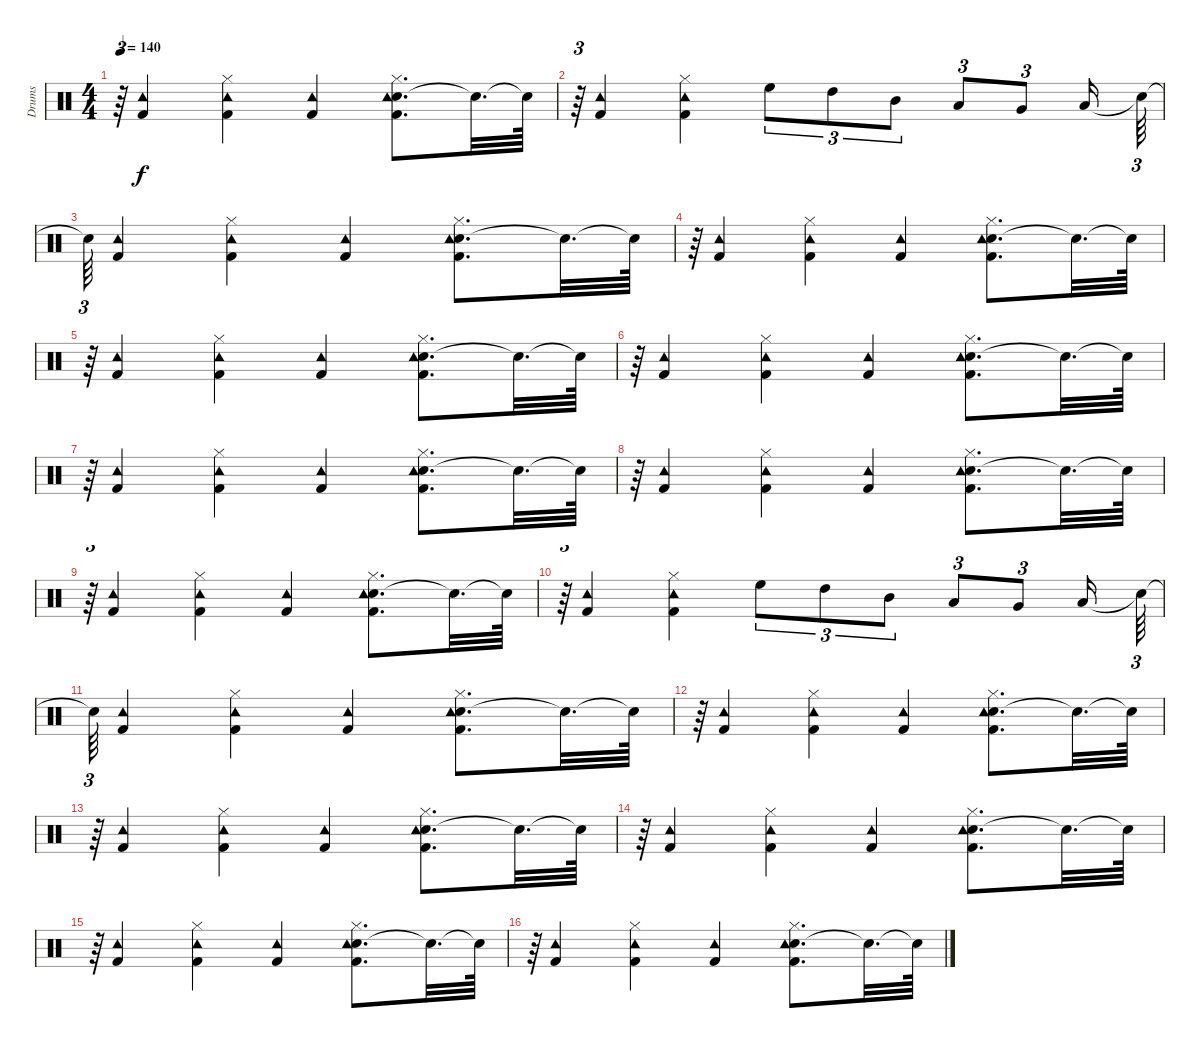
\track ("Drums" "Drums") {instrument percussion}
\staff {score}
\articulation defaults
\ts (4 4)
\tempo 140
\clef neutral
\ks c
r.64{tu (3 2) dy f} ("Tambourine (hit)" "Kick (hit) 2").4 ("Hi-Hat (closed)" "Tambourine (hit)" "Kick (hit) 2").4 ("Tambourine (hit)" "Kick (hit) 2").4 ("Electric Snare (hit)" "Hi-Hat (closed)" "Tambourine (hit)" "Kick (hit) 2").8{d} "Snare (hit)"{t}.32{d} "Snare (hit)"{t}.64 |
r.64{tu (3 2)} ("Tambourine (hit)" "Kick (hit) 2").4 ("Hi-Hat (closed)" "Tambourine (hit)" "Kick (hit) 2").4 "High Floor Tom (hit)".8{tu (3 2)} "High Tom (hit)".8{tu (3 2)} "Mid Tom (hit)".8{tu (3 2)} "Low Tom (hit)".8{tu (3 2)} "Very Low Tom (hit)".8{tu (3 2)} "Low Floor Tom (hit)".16 "Snare (hit)"{t}.64{tu (3 2)} |
"Snare (hit)"{t}.64{tu (3 2)} ("Tambourine (hit)" "Kick (hit) 2").4 ("Hi-Hat (closed)" "Tambourine (hit)" "Kick (hit) 2").4 ("Tambourine (hit)" "Kick (hit) 2").4 ("Electric Snare (hit)" "Hi-Hat (closed)" "Tambourine (hit)" "Kick (hit) 2").8{d} "Snare (hit)"{t}.32{d} "Snare (hit)"{t}.64 |
r.64{tu (3 2)} ("Tambourine (hit)" "Kick (hit) 2").4 ("Hi-Hat (closed)" "Tambourine (hit)" "Kick (hit) 2").4 ("Tambourine (hit)" "Kick (hit) 2").4 ("Electric Snare (hit)" "Hi-Hat (closed)" "Tambourine (hit)" "Kick (hit) 2").8{d} "Snare (hit)"{t}.32{d} "Snare (hit)"{t}.64 |
r.64{tu (3 2)} ("Tambourine (hit)" "Kick (hit) 2").4 ("Hi-Hat (closed)" "Tambourine (hit)" "Kick (hit) 2").4 ("Tambourine (hit)" "Kick (hit) 2").4 ("Electric Snare (hit)" "Hi-Hat (closed)" "Tambourine (hit)" "Kick (hit) 2").8{d} "Snare (hit)"{t}.32{d} "Snare (hit)"{t}.64 |
r.64{tu (3 2)} ("Tambourine (hit)" "Kick (hit) 2").4 ("Hi-Hat (closed)" "Tambourine (hit)" "Kick (hit) 2").4 ("Tambourine (hit)" "Kick (hit) 2").4 ("Electric Snare (hit)" "Hi-Hat (closed)" "Tambourine (hit)" "Kick (hit) 2").8{d} "Snare (hit)"{t}.32{d} "Snare (hit)"{t}.64 |
r.64{tu (3 2)} ("Tambourine (hit)" "Kick (hit) 2").4 ("Hi-Hat (closed)" "Tambourine (hit)" "Kick (hit) 2").4 ("Tambourine (hit)" "Kick (hit) 2").4 ("Electric Snare (hit)" "Hi-Hat (closed)" "Tambourine (hit)" "Kick (hit) 2").8{d} "Snare (hit)"{t}.32{d} "Snare (hit)"{t}.64 |
r.64{tu (3 2)} ("Tambourine (hit)" "Kick (hit) 2").4 ("Hi-Hat (closed)" "Tambourine (hit)" "Kick (hit) 2").4 ("Tambourine (hit)" "Kick (hit) 2").4 ("Electric Snare (hit)" "Hi-Hat (closed)" "Tambourine (hit)" "Kick (hit) 2").8{d} "Snare (hit)"{t}.32{d} "Snare (hit)"{t}.64 |
r.64{tu (3 2)} ("Tambourine (hit)" "Kick (hit) 2").4 ("Hi-Hat (closed)" "Tambourine (hit)" "Kick (hit) 2").4 ("Tambourine (hit)" "Kick (hit) 2").4 ("Electric Snare (hit)" "Hi-Hat (closed)" "Tambourine (hit)" "Kick (hit) 2").8{d} "Snare (hit)"{t}.32{d} "Snare (hit)"{t}.64 |
r.64{tu (3 2)} ("Tambourine (hit)" "Kick (hit) 2").4 ("Hi-Hat (closed)" "Tambourine (hit)" "Kick (hit) 2").4 "High Floor Tom (hit)".8{tu (3 2)} "High Tom (hit)".8{tu (3 2)} "Mid Tom (hit)".8{tu (3 2)} "Low Tom (hit)".8{tu (3 2)} "Very Low Tom (hit)".8{tu (3 2)} "Low Floor Tom (hit)".16 "Snare (hit)"{t}.64{tu (3 2)} |
"Snare (hit)"{t}.64{tu (3 2)} ("Tambourine (hit)" "Kick (hit) 2").4 ("Hi-Hat (closed)" "Tambourine (hit)" "Kick (hit) 2").4 ("Tambourine (hit)" "Kick (hit) 2").4 ("Electric Snare (hit)" "Hi-Hat (closed)" "Tambourine (hit)" "Kick (hit) 2").8{d} "Snare (hit)"{t}.32{d} "Snare (hit)"{t}.64 |
r.64{tu (3 2)} ("Tambourine (hit)" "Kick (hit) 2").4 ("Hi-Hat (closed)" "Tambourine (hit)" "Kick (hit) 2").4 ("Tambourine (hit)" "Kick (hit) 2").4 ("Electric Snare (hit)" "Hi-Hat (closed)" "Tambourine (hit)" "Kick (hit) 2").8{d} "Snare (hit)"{t}.32{d} "Snare (hit)"{t}.64 |
r.64{tu (3 2)} ("Tambourine (hit)" "Kick (hit) 2").4 ("Hi-Hat (closed)" "Tambourine (hit)" "Kick (hit) 2").4 ("Tambourine (hit)" "Kick (hit) 2").4 ("Electric Snare (hit)" "Hi-Hat (closed)" "Tambourine (hit)" "Kick (hit) 2").8{d} "Snare (hit)"{t}.32{d} "Snare (hit)"{t}.64 |
r.64{tu (3 2)} ("Tambourine (hit)" "Kick (hit) 2").4 ("Hi-Hat (closed)" "Tambourine (hit)" "Kick (hit) 2").4 ("Tambourine (hit)" "Kick (hit) 2").4 ("Electric Snare (hit)" "Hi-Hat (closed)" "Tambourine (hit)" "Kick (hit) 2").8{d} "Snare (hit)"{t}.32{d} "Snare (hit)"{t}.64 |
r.64{tu (3 2)} ("Tambourine (hit)" "Kick (hit) 2").4 ("Hi-Hat (closed)" "Tambourine (hit)" "Kick (hit) 2").4 ("Tambourine (hit)" "Kick (hit) 2").4 ("Electric Snare (hit)" "Hi-Hat (closed)" "Tambourine (hit)" "Kick (hit) 2").8{d} "Snare (hit)"{t}.32{d} "Snare (hit)"{t}.64 |
r.64{tu (3 2)} ("Tambourine (hit)" "Kick (hit) 2").4 ("Hi-Hat (closed)" "Tambourine (hit)" "Kick (hit) 2").4 ("Tambourine (hit)" "Kick (hit) 2").4 ("Electric Snare (hit)" "Hi-Hat (closed)" "Tambourine (hit)" "Kick (hit) 2").8{d} "Snare (hit)"{t}.32{d} "Snare (hit)"{t}.64
